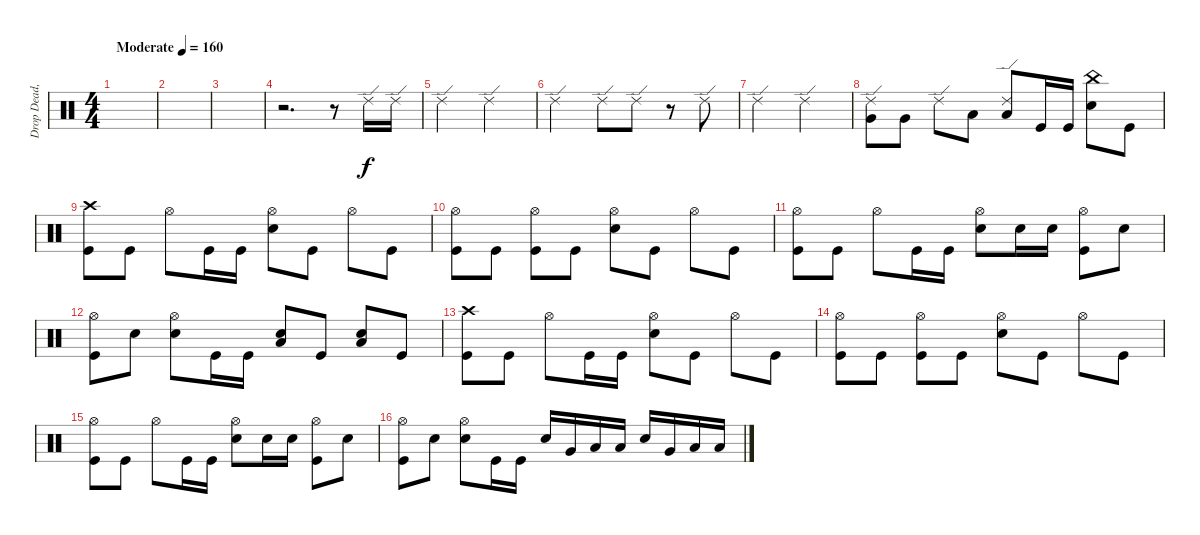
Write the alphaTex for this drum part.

\track ("Drop Dead, Johnny" "Drop Dead,") {instrument percussion}
\staff {score}
\articulation defaults
\ts (4 4)
\tempo (160 "Moderate")
\clef neutral
\ks c
|
|
|
r.2{d} r.8 "Ride (edge) 2".16 "Ride (edge) 2".16 |
"Ride (edge) 2".2 "Ride (edge) 2".2 |
"Ride (edge) 2".2 "Ride (edge) 2".8 "Ride (edge) 2".8 r.8 "Ride (edge) 2".8 |
"Ride (edge) 2".2 "Ride (edge) 2".2 |
("Ride (edge) 2" "Very Low Tom (hit)").8 "Very Low Tom (hit)".8 "Ride (edge) 2".8 "Low Floor Tom (hit)".8 ("Ride (edge) 2" "Low Floor Tom (hit)").8 "Kick (hit)".16 "Kick (hit)".16 ("China (hit)" "Electric Snare (hit)").8 "Kick (hit)".8 |
("Crash high (hit)" "Kick (hit)").8 "Kick (hit)".8 "Hi-Hat (open)".8 "Kick (hit)".16 "Kick (hit)".16 ("Hi-Hat (open)" "Electric Snare (hit)").8 "Kick (hit)".8 "Hi-Hat (open)".8 "Kick (hit)".8 |
("Hi-Hat (open)" "Kick (hit)").8 "Kick (hit)".8 ("Hi-Hat (open)" "Kick (hit)").8 "Kick (hit)".8 ("Hi-Hat (open)" "Electric Snare (hit)").8 "Kick (hit)".8 "Hi-Hat (open)".8 "Kick (hit)".8 |
("Hi-Hat (open)" "Kick (hit)").8 "Kick (hit)".8 "Hi-Hat (open)".8 "Kick (hit)".16 "Kick (hit)".16 ("Hi-Hat (open)" "Electric Snare (hit)").8 "Electric Snare (hit)".16 "Electric Snare (hit)".16 ("Hi-Hat (open)" "Kick (hit)").8 "Electric Snare (hit)".8 |
("Hi-Hat (open)" "Kick (hit)").8 "Electric Snare (hit)".8 ("Hi-Hat (open)" "Electric Snare (hit)").8 "Kick (hit)".16 "Kick (hit)".16 ("Low Floor Tom (hit)" "Electric Snare (hit)").8 "Kick (hit)".8 ("Low Floor Tom (hit)" "Electric Snare (hit)").8 "Kick (hit)".8 |
("Crash high (hit)" "Kick (hit)").8 "Kick (hit)".8 "Hi-Hat (open)".8 "Kick (hit)".16 "Kick (hit)".16 ("Hi-Hat (open)" "Electric Snare (hit)").8 "Kick (hit)".8 "Hi-Hat (open)".8 "Kick (hit)".8 |
("Hi-Hat (open)" "Kick (hit)").8 "Kick (hit)".8 ("Hi-Hat (open)" "Kick (hit)").8 "Kick (hit)".8 ("Hi-Hat (open)" "Electric Snare (hit)").8 "Kick (hit)".8 "Hi-Hat (open)".8 "Kick (hit)".8 |
("Hi-Hat (open)" "Kick (hit)").8 "Kick (hit)".8 "Hi-Hat (open)".8 "Kick (hit)".16 "Kick (hit)".16 ("Hi-Hat (open)" "Electric Snare (hit)").8 "Electric Snare (hit)".16 "Electric Snare (hit)".16 ("Hi-Hat (open)" "Kick (hit)").8 "Electric Snare (hit)".8 |
("Hi-Hat (open)" "Kick (hit)").8 "Electric Snare (hit)".8 ("Hi-Hat (open)" "Electric Snare (hit)").8 "Kick (hit)".16 "Kick (hit)".16 "Electric Snare (hit)".16 "Very Low Tom (hit)".16 "Low Floor Tom (hit)".16 "Low Floor Tom (hit)".16 "Electric Snare (hit)".16 "Very Low Tom (hit)".16 "Low Floor Tom (hit)".16 "Low Floor Tom (hit)".16
